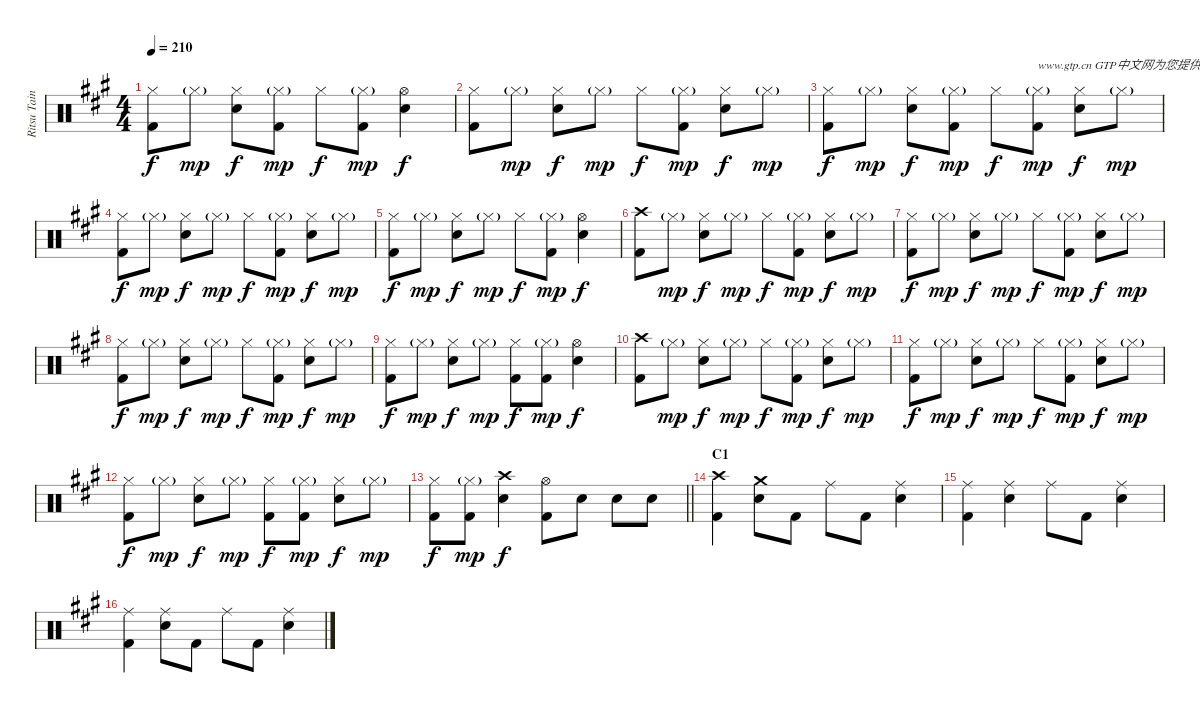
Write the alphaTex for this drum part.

\track ("Ritsu Tainaka" "Ritsu Tain") {instrument percussion}
\staff {score}
\articulation defaults
\ts (4 4)
\tempo 210
\clef neutral
\ks a
("Hi-Hat (closed)" "Kick (hit) 2").8{dy f} "Hi-Hat (closed)"{g}.8{dy mp} ("Hi-Hat (closed)" "Electric Snare (hit)").8{dy f} ("Hi-Hat (closed)"{g} "Kick (hit) 2").8{dy mp} "Hi-Hat (closed)".8{dy f} ("Hi-Hat (closed)"{g} "Kick (hit) 2").8{dy mp} ("Hi-Hat (open)" "Electric Snare (hit)").4{dy f} |
("Hi-Hat (closed)" "Kick (hit) 2").8 "Hi-Hat (closed)"{g}.8{dy mp} ("Hi-Hat (closed)" "Electric Snare (hit)").8{dy f} "Hi-Hat (closed)"{g}.8{dy mp} "Hi-Hat (closed)".8{dy f} ("Hi-Hat (closed)"{g} "Kick (hit) 2").8{dy mp} ("Hi-Hat (closed)" "Electric Snare (hit)").8{dy f} "Hi-Hat (closed)"{g}.8{dy mp} |
("Hi-Hat (closed)" "Kick (hit) 2").8{dy f} "Hi-Hat (closed)"{g}.8{dy mp} ("Hi-Hat (closed)" "Electric Snare (hit)").8{dy f} ("Hi-Hat (closed)"{g} "Kick (hit) 2").8{dy mp} "Hi-Hat (closed)".8{dy f} ("Hi-Hat (closed)"{g} "Kick (hit) 2").8{txt "www.gtp.cn GTP中文网为您提供优秀的谱子" dy mp} ("Hi-Hat (closed)" "Electric Snare (hit)").8{dy f} "Hi-Hat (closed)"{g}.8{dy mp} |
("Hi-Hat (closed)" "Kick (hit) 2").8{dy f} "Hi-Hat (closed)"{g}.8{dy mp} ("Hi-Hat (closed)" "Electric Snare (hit)").8{dy f} "Hi-Hat (closed)"{g}.8{dy mp} "Hi-Hat (closed)".8{dy f} ("Hi-Hat (closed)"{g} "Kick (hit) 2").8{dy mp} ("Hi-Hat (closed)" "Electric Snare (hit)").8{dy f} "Hi-Hat (closed)"{g}.8{dy mp} |
("Hi-Hat (closed)" "Kick (hit) 2").8{dy f} "Hi-Hat (closed)"{g}.8{dy mp} ("Hi-Hat (closed)" "Electric Snare (hit)").8{dy f} "Hi-Hat (closed)"{g}.8{dy mp} "Hi-Hat (closed)".8{dy f} ("Hi-Hat (closed)"{g} "Kick (hit) 2").8{dy mp} ("Hi-Hat (open)" "Electric Snare (hit)").4{dy f} |
("Crash high (hit)" "Kick (hit) 2").8 "Hi-Hat (closed)"{g}.8{dy mp} ("Hi-Hat (closed)" "Electric Snare (hit)").8{dy f} "Hi-Hat (closed)"{g}.8{dy mp} "Hi-Hat (closed)".8{dy f} ("Hi-Hat (closed)"{g} "Kick (hit) 2").8{dy mp} ("Hi-Hat (closed)" "Electric Snare (hit)").8{dy f} "Hi-Hat (closed)"{g}.8{dy mp} |
("Hi-Hat (closed)" "Kick (hit) 2").8{dy f} "Hi-Hat (closed)"{g}.8{dy mp} ("Hi-Hat (closed)" "Electric Snare (hit)").8{dy f} "Hi-Hat (closed)"{g}.8{dy mp} "Hi-Hat (closed)".8{dy f} ("Hi-Hat (closed)"{g} "Kick (hit) 2").8{dy mp} ("Hi-Hat (closed)" "Electric Snare (hit)").8{dy f} "Hi-Hat (closed)"{g}.8{dy mp} |
("Hi-Hat (closed)" "Kick (hit) 2").8{dy f} "Hi-Hat (closed)"{g}.8{dy mp} ("Hi-Hat (closed)" "Electric Snare (hit)").8{dy f} "Hi-Hat (closed)"{g}.8{dy mp} "Hi-Hat (closed)".8{dy f} ("Hi-Hat (closed)"{g} "Kick (hit) 2").8{dy mp} ("Hi-Hat (closed)" "Electric Snare (hit)").8{dy f} "Hi-Hat (closed)"{g}.8{dy mp} |
("Hi-Hat (closed)" "Kick (hit) 2").8{dy f} "Hi-Hat (closed)"{g}.8{dy mp} ("Hi-Hat (closed)" "Electric Snare (hit)").8{dy f} "Hi-Hat (closed)"{g}.8{dy mp} ("Hi-Hat (closed)" "Kick (hit) 2").8{dy f} ("Hi-Hat (closed)"{g} "Kick (hit) 2").8{dy mp} ("Hi-Hat (open)" "Electric Snare (hit)").4{dy f} |
("Crash high (hit)" "Kick (hit) 2").8 "Hi-Hat (closed)"{g}.8{dy mp} ("Hi-Hat (closed)" "Electric Snare (hit)").8{dy f} "Hi-Hat (closed)"{g}.8{dy mp} "Hi-Hat (closed)".8{dy f} ("Hi-Hat (closed)"{g} "Kick (hit) 2").8{dy mp} ("Hi-Hat (closed)" "Electric Snare (hit)").8{dy f} "Hi-Hat (closed)"{g}.8{dy mp} |
("Hi-Hat (closed)" "Kick (hit) 2").8{dy f} "Hi-Hat (closed)"{g}.8{dy mp} ("Hi-Hat (closed)" "Electric Snare (hit)").8{dy f} "Hi-Hat (closed)"{g}.8{dy mp} "Hi-Hat (closed)".8{dy f} ("Hi-Hat (closed)"{g} "Kick (hit) 2").8{dy mp} ("Hi-Hat (closed)" "Electric Snare (hit)").8{dy f} "Hi-Hat (closed)"{g}.8{dy mp} |
("Hi-Hat (closed)" "Kick (hit) 2").8{dy f} "Hi-Hat (closed)"{g}.8{dy mp} ("Hi-Hat (closed)" "Electric Snare (hit)").8{dy f} "Hi-Hat (closed)"{g}.8{dy mp} ("Hi-Hat (closed)" "Kick (hit) 2").8{dy f} ("Hi-Hat (closed)"{g} "Kick (hit) 2").8{dy mp} ("Hi-Hat (closed)" "Electric Snare (hit)").8{dy f} "Hi-Hat (closed)"{g}.8{dy mp} |
\barLineRight lightlight
("Hi-Hat (closed)" "Kick (hit) 2").8{dy f} ("Hi-Hat (closed)"{g} "Kick (hit) 2").8{dy mp} ("Crash high (hit)" "Electric Snare (hit)").4{dy f} ("Hi-Hat (open)" "Kick (hit) 2").8 "Electric Snare (hit)".8 "Electric Snare (hit)".8 "Electric Snare (hit)".8 |
\section ("" "C1")
("Crash high (hit)" "Kick (hit) 2").4 ("Crash medium (hit)" "Electric Snare (hit)").8 "Kick (hit) 2".8 "Ride (middle)".8 "Kick (hit) 2".8 ("Ride (middle)" "Electric Snare (hit)").4 |
("Ride (middle)" "Kick (hit) 2").4 ("Ride (middle)" "Electric Snare (hit)").4 "Ride (middle)".8 "Kick (hit) 2".8 ("Ride (middle)" "Electric Snare (hit)").4 |
("Ride (middle)" "Kick (hit) 2").4 ("Ride (middle)" "Electric Snare (hit)").8 "Kick (hit) 2".8 "Ride (middle)".8 "Kick (hit) 2".8 ("Ride (middle)" "Electric Snare (hit)").4
